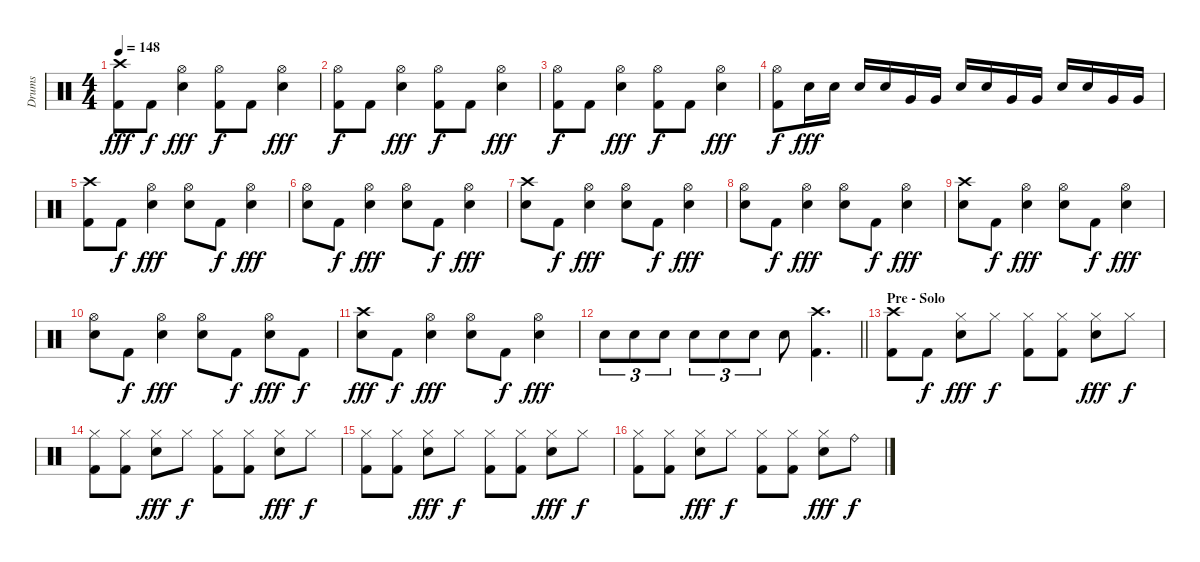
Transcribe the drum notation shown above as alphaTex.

\track ("Drums" "Drums") {instrument percussion}
\staff {score}
\articulation defaults
\ts (4 4)
\tempo 148
\clef neutral
\ks c
("Crash high (hit)" "Kick (hit) 2").8{dy fff} "Kick (hit) 2".8{dy f} ("Hi-Hat (open)" "Electric Snare (hit)").4{dy fff} ("Hi-Hat (open)" "Kick (hit) 2").8{dy f} "Kick (hit) 2".8 ("Hi-Hat (open)" "Electric Snare (hit)").4{dy fff} |
("Hi-Hat (open)" "Kick (hit) 2").8{dy f} "Kick (hit) 2".8 ("Hi-Hat (open)" "Electric Snare (hit)").4{dy fff} ("Hi-Hat (open)" "Kick (hit) 2").8{dy f} "Kick (hit) 2".8 ("Hi-Hat (open)" "Electric Snare (hit)").4{dy fff} |
("Hi-Hat (open)" "Kick (hit) 2").8{dy f} "Kick (hit) 2".8 ("Hi-Hat (open)" "Electric Snare (hit)").4{dy fff} ("Hi-Hat (open)" "Kick (hit) 2").8{dy f} "Kick (hit) 2".8 ("Hi-Hat (open)" "Electric Snare (hit)").4{dy fff} |
("Hi-Hat (open)" "Kick (hit) 2").8{dy f} "Electric Snare (hit)".16{dy fff} "Electric Snare (hit)".16 "Electric Snare (hit)".16 "Electric Snare (hit)".16 "Very Low Tom (hit)".16 "Very Low Tom (hit)".16 "Electric Snare (hit)".16 "Electric Snare (hit)".16 "Very Low Tom (hit)".16 "Very Low Tom (hit)".16 "Electric Snare (hit)".16 "Electric Snare (hit)".16 "Very Low Tom (hit)".16 "Very Low Tom (hit)".16 |
("Crash high (hit)" "Kick (hit) 2").8 "Kick (hit) 2".8{dy f} ("Hi-Hat (open)" "Electric Snare (hit)").4{dy fff} ("Hi-Hat (open)" "Electric Snare (hit)").8 "Kick (hit) 2".8{dy f} ("Hi-Hat (open)" "Electric Snare (hit)").4{dy fff} |
("Hi-Hat (open)" "Electric Snare (hit)").8 "Kick (hit) 2".8{dy f} ("Hi-Hat (open)" "Electric Snare (hit)").4{dy fff} ("Hi-Hat (open)" "Electric Snare (hit)").8 "Kick (hit) 2".8{dy f} ("Hi-Hat (open)" "Electric Snare (hit)").4{dy fff} |
("Crash high (hit)" "Electric Snare (hit)").8 "Kick (hit) 2".8{dy f} ("Hi-Hat (open)" "Electric Snare (hit)").4{dy fff} ("Hi-Hat (open)" "Electric Snare (hit)").8 "Kick (hit) 2".8{dy f} ("Hi-Hat (open)" "Electric Snare (hit)").4{dy fff} |
("Hi-Hat (open)" "Electric Snare (hit)").8 "Kick (hit) 2".8{dy f} ("Hi-Hat (open)" "Electric Snare (hit)").4{dy fff} ("Hi-Hat (open)" "Electric Snare (hit)").8 "Kick (hit) 2".8{dy f} ("Hi-Hat (open)" "Electric Snare (hit)").4{dy fff} |
("Crash high (hit)" "Electric Snare (hit)").8 "Kick (hit) 2".8{dy f} ("Hi-Hat (open)" "Electric Snare (hit)").4{dy fff} ("Hi-Hat (open)" "Electric Snare (hit)").8 "Kick (hit) 2".8{dy f} ("Hi-Hat (open)" "Electric Snare (hit)").4{dy fff} |
("Hi-Hat (open)" "Electric Snare (hit)").8 "Kick (hit) 2".8{dy f} ("Hi-Hat (open)" "Electric Snare (hit)").4{dy fff} ("Hi-Hat (open)" "Electric Snare (hit)").8 "Kick (hit) 2".8{dy f} ("Hi-Hat (open)" "Electric Snare (hit)").8{dy fff} "Kick (hit) 2".8{dy f} |
("Crash high (hit)" "Electric Snare (hit)").8{dy fff} "Kick (hit) 2".8{dy f} ("Hi-Hat (open)" "Electric Snare (hit)").4{dy fff} ("Hi-Hat (open)" "Electric Snare (hit)").8 "Kick (hit) 2".8{dy f} ("Hi-Hat (open)" "Electric Snare (hit)").4{dy fff} |
\barLineRight lightlight "Electric Snare (hit)".8{tu (3 2)} "Electric Snare (hit)".8{tu (3 2)} "Electric Snare (hit)".8{tu (3 2)} "Electric Snare (hit)".8{tu (3 2)} "Electric Snare (hit)".8{tu (3 2)} "Electric Snare (hit)".8{tu (3 2)} "Electric Snare (hit)".8
("Crash high (hit)" "Kick (hit) 2").4{d} |
\section ("" "Pre - Solo")
("Crash high (hit)" "Kick (hit) 2").8 "Kick (hit) 2".8{dy f} ("Hi-Hat (closed)" "Electric Snare (hit)").8{dy fff} "Hi-Hat (closed)".8{dy f} ("Hi-Hat (closed)" "Kick (hit) 2").8 ("Hi-Hat (closed)" "Kick (hit) 2").8 ("Hi-Hat (closed)" "Electric Snare (hit)").8{dy fff} "Hi-Hat (closed)".8{dy f} |
("Hi-Hat (closed)" "Kick (hit) 2").8 ("Hi-Hat (closed)" "Kick (hit) 2").8 ("Hi-Hat (closed)" "Electric Snare (hit)").8{dy fff} "Hi-Hat (closed)".8{dy f} ("Hi-Hat (closed)" "Kick (hit) 2").8 ("Hi-Hat (closed)" "Kick (hit) 2").8 ("Hi-Hat (closed)" "Electric Snare (hit)").8{dy fff} "Hi-Hat (closed)".8{dy f} |
("Hi-Hat (closed)" "Kick (hit) 2").8 ("Hi-Hat (closed)" "Kick (hit) 2").8 ("Hi-Hat (closed)" "Electric Snare (hit)").8{dy fff} "Hi-Hat (closed)".8{dy f} ("Hi-Hat (closed)" "Kick (hit) 2").8 ("Hi-Hat (closed)" "Kick (hit) 2").8 ("Hi-Hat (closed)" "Electric Snare (hit)").8{dy fff} "Hi-Hat (closed)".8{dy f} |
("Hi-Hat (closed)" "Kick (hit) 2").8 ("Hi-Hat (closed)" "Kick (hit) 2").8 ("Hi-Hat (closed)" "Electric Snare (hit)").8{dy fff} "Hi-Hat (closed)".8{dy f} ("Hi-Hat (closed)" "Kick (hit) 2").8 ("Hi-Hat (closed)" "Kick (hit) 2").8 ("Hi-Hat (closed)" "Electric Snare (hit)").8{dy fff} "Ride (bell)".8{dy f}
